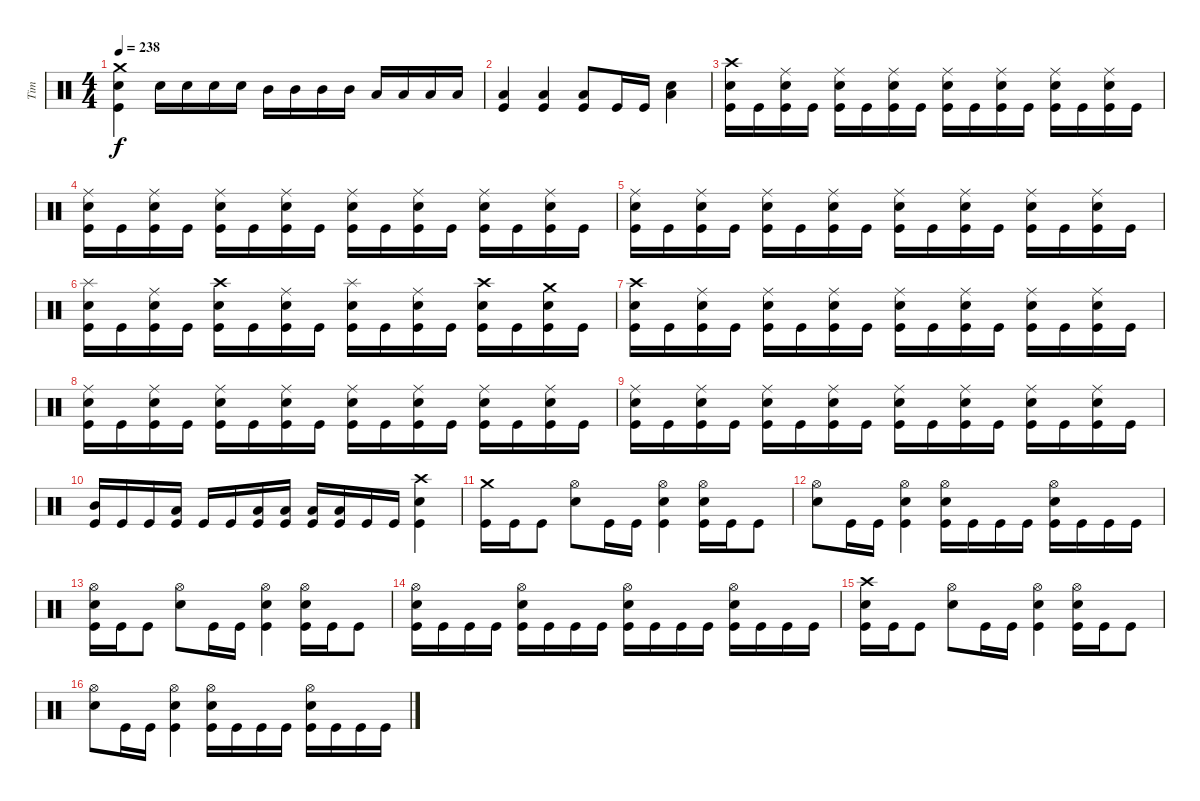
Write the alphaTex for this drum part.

\track ("Tim" "Tim") {instrument percussion}
\staff {score}
\articulation defaults
\ts (4 4)
\tempo 238
\clef neutral
\ks c
("Crash medium (hit)" "Electric Snare (hit)" "Kick (hit)").4{dy f} "Electric Snare (hit)".16 "Electric Snare (hit)".16 "Electric Snare (hit)".16 "Electric Snare (hit)".16 "Mid Tom (hit)".16 "Mid Tom (hit)".16 "Mid Tom (hit)".16 "Mid Tom (hit)".16 "Low Tom (hit)".16 "Low Tom (hit)".16 "Low Tom (hit)".16 "Low Tom (hit)".16 |
("Low Floor Tom (hit)" "Kick (hit)").4 ("Low Floor Tom (hit)" "Kick (hit)").4 ("Low Floor Tom (hit)" "Kick (hit)").8 "Kick (hit)".16 "Kick (hit)".16 ("Electric Snare (hit)" "Low Floor Tom (hit)").4 |
("Crash high (hit)" "Electric Snare (hit)" "Kick (hit)").16 "Kick (hit)".16 ("Ride (middle)" "Electric Snare (hit)" "Kick (hit)").16 "Kick (hit)".16 ("Ride (middle)" "Electric Snare (hit)" "Kick (hit)").16 "Kick (hit)".16 ("Ride (middle)" "Electric Snare (hit)" "Kick (hit)").16 "Kick (hit)".16 ("Ride (middle)" "Electric Snare (hit)" "Kick (hit)").16 "Kick (hit)".16 ("Ride (middle)" "Electric Snare (hit)" "Kick (hit)").16 "Kick (hit)".16 ("Ride (middle)" "Electric Snare (hit)" "Kick (hit)").16 "Kick (hit)".16 ("Ride (middle)" "Electric Snare (hit)" "Kick (hit)").16 "Kick (hit)".16 |
("Ride (middle)" "Electric Snare (hit)" "Kick (hit)").16 "Kick (hit)".16 ("Ride (middle)" "Electric Snare (hit)" "Kick (hit)").16 "Kick (hit)".16 ("Ride (middle)" "Electric Snare (hit)" "Kick (hit)").16 "Kick (hit)".16 ("Ride (middle)" "Electric Snare (hit)" "Kick (hit)").16 "Kick (hit)".16 ("Ride (middle)" "Electric Snare (hit)" "Kick (hit)").16 "Kick (hit)".16 ("Ride (middle)" "Electric Snare (hit)" "Kick (hit)").16 "Kick (hit)".16 ("Ride (middle)" "Electric Snare (hit)" "Kick (hit)").16 "Kick (hit)".16 ("Ride (middle)" "Electric Snare (hit)" "Kick (hit)").16 "Kick (hit)".16 |
("Ride (middle)" "Electric Snare (hit)" "Kick (hit)").16 "Kick (hit)".16 ("Ride (middle)" "Electric Snare (hit)" "Kick (hit)").16 "Kick (hit)".16 ("Ride (middle)" "Electric Snare (hit)" "Kick (hit)").16 "Kick (hit)".16 ("Ride (middle)" "Electric Snare (hit)" "Kick (hit)").16 "Kick (hit)".16 ("Ride (middle)" "Electric Snare (hit)" "Kick (hit)").16 "Kick (hit)".16 ("Ride (middle)" "Electric Snare (hit)" "Kick (hit)").16 "Kick (hit)".16 ("Ride (middle)" "Electric Snare (hit)" "Kick (hit)").16 "Kick (hit)".16 ("Ride (middle)" "Electric Snare (hit)" "Kick (hit)").16 "Kick (hit)".16 |
("Splash (hit)" "Electric Snare (hit)" "Kick (hit)").16 "Kick (hit)".16 ("Ride (middle)" "Electric Snare (hit)" "Kick (hit)").16 "Kick (hit)".16 ("Crash high (hit)" "Electric Snare (hit)" "Kick (hit)").16 "Kick (hit)".16 ("Ride (middle)" "Electric Snare (hit)" "Kick (hit)").16 "Kick (hit)".16 ("Splash (hit)" "Electric Snare (hit)" "Kick (hit)").16 "Kick (hit)".16 ("Ride (middle)" "Electric Snare (hit)" "Kick (hit)").16 "Kick (hit)".16 ("Crash high (hit)" "Electric Snare (hit)" "Kick (hit)").16 "Kick (hit)".16 ("Crash medium (hit)" "Electric Snare (hit)" "Kick (hit)").16 "Kick (hit)".16 |
("Crash high (hit)" "Electric Snare (hit)" "Kick (hit)").16 "Kick (hit)".16 ("Ride (middle)" "Electric Snare (hit)" "Kick (hit)").16 "Kick (hit)".16 ("Ride (middle)" "Electric Snare (hit)" "Kick (hit)").16 "Kick (hit)".16 ("Ride (middle)" "Electric Snare (hit)" "Kick (hit)").16 "Kick (hit)".16 ("Ride (middle)" "Electric Snare (hit)" "Kick (hit)").16 "Kick (hit)".16 ("Ride (middle)" "Electric Snare (hit)" "Kick (hit)").16 "Kick (hit)".16 ("Ride (middle)" "Electric Snare (hit)" "Kick (hit)").16 "Kick (hit)".16 ("Ride (middle)" "Electric Snare (hit)" "Kick (hit)").16 "Kick (hit)".16 |
("Ride (middle)" "Electric Snare (hit)" "Kick (hit)").16 "Kick (hit)".16 ("Ride (middle)" "Electric Snare (hit)" "Kick (hit)").16 "Kick (hit)".16 ("Ride (middle)" "Electric Snare (hit)" "Kick (hit)").16 "Kick (hit)".16 ("Ride (middle)" "Electric Snare (hit)" "Kick (hit)").16 "Kick (hit)".16 ("Ride (middle)" "Electric Snare (hit)" "Kick (hit)").16 "Kick (hit)".16 ("Ride (middle)" "Electric Snare (hit)" "Kick (hit)").16 "Kick (hit)".16 ("Ride (middle)" "Electric Snare (hit)" "Kick (hit)").16 "Kick (hit)".16 ("Ride (middle)" "Electric Snare (hit)" "Kick (hit)").16 "Kick (hit)".16 |
("Ride (middle)" "Electric Snare (hit)" "Kick (hit)").16 "Kick (hit)".16 ("Ride (middle)" "Electric Snare (hit)" "Kick (hit)").16 "Kick (hit)".16 ("Ride (middle)" "Electric Snare (hit)" "Kick (hit)").16 "Kick (hit)".16 ("Ride (middle)" "Electric Snare (hit)" "Kick (hit)").16 "Kick (hit)".16 ("Ride (middle)" "Electric Snare (hit)" "Kick (hit)").16 "Kick (hit)".16 ("Ride (middle)" "Electric Snare (hit)" "Kick (hit)").16 "Kick (hit)".16 ("Ride (middle)" "Electric Snare (hit)" "Kick (hit)").16 "Kick (hit)".16 ("Ride (middle)" "Electric Snare (hit)" "Kick (hit)").16 "Kick (hit)".16 |
("Mid Tom (hit)" "Kick (hit)").16 "Kick (hit)".16 "Kick (hit)".16 ("Low Tom (hit)" "Kick (hit)").16 "Kick (hit)".16 "Kick (hit)".16 ("Low Floor Tom (hit)" "Kick (hit)").16 ("Low Floor Tom (hit)" "Kick (hit)").16 ("Low Floor Tom (hit)" "Kick (hit)").16 ("Low Floor Tom (hit)" "Kick (hit)").16 "Kick (hit)".16 "Kick (hit)".16 ("Crash high (hit)" "Electric Snare (hit)" "Kick (hit)").4 |
("Crash medium (hit)" "Kick (hit)").16 "Kick (hit)".16 "Kick (hit)".8 ("Hi-Hat (open)" "Electric Snare (hit)").8 "Kick (hit)".16 "Kick (hit)".16 ("Hi-Hat (open)" "Electric Snare (hit)" "Kick (hit)").4 ("Hi-Hat (open)" "Electric Snare (hit)" "Kick (hit)").16 "Kick (hit)".16 "Kick (hit)".8 |
("Hi-Hat (open)" "Electric Snare (hit)").8 "Kick (hit)".16 "Kick (hit)".16 ("Hi-Hat (open)" "Electric Snare (hit)" "Kick (hit)").4 ("Hi-Hat (open)" "Electric Snare (hit)" "Kick (hit)").16 "Kick (hit)".16 "Kick (hit)".16 "Kick (hit)".16 ("Hi-Hat (open)" "Electric Snare (hit)" "Kick (hit)").16 "Kick (hit)".16 "Kick (hit)".16 "Kick (hit)".16 |
("Hi-Hat (open)" "Electric Snare (hit)" "Kick (hit)").16 "Kick (hit)".16 "Kick (hit)".8 ("Hi-Hat (open)" "Electric Snare (hit)").8 "Kick (hit)".16 "Kick (hit)".16 ("Hi-Hat (open)" "Electric Snare (hit)" "Kick (hit)").4 ("Hi-Hat (open)" "Electric Snare (hit)" "Kick (hit)").16 "Kick (hit)".16 "Kick (hit)".8 |
("Hi-Hat (open)" "Electric Snare (hit)" "Kick (hit)").16 "Kick (hit)".16 "Kick (hit)".16 "Kick (hit)".16 ("Hi-Hat (open)" "Electric Snare (hit)" "Kick (hit)").16 "Kick (hit)".16 "Kick (hit)".16 "Kick (hit)".16 ("Hi-Hat (open)" "Electric Snare (hit)" "Kick (hit)").16 "Kick (hit)".16 "Kick (hit)".16 "Kick (hit)".16 ("Hi-Hat (open)" "Electric Snare (hit)" "Kick (hit)").16 "Kick (hit)".16 "Kick (hit)".16 "Kick (hit)".16 |
("Crash high (hit)" "Electric Snare (hit)" "Kick (hit)").16 "Kick (hit)".16 "Kick (hit)".8 ("Hi-Hat (open)" "Electric Snare (hit)").8 "Kick (hit)".16 "Kick (hit)".16 ("Hi-Hat (open)" "Electric Snare (hit)" "Kick (hit)").4 ("Hi-Hat (open)" "Electric Snare (hit)" "Kick (hit)").16 "Kick (hit)".16 "Kick (hit)".8 |
("Hi-Hat (open)" "Electric Snare (hit)").8 "Kick (hit)".16 "Kick (hit)".16 ("Hi-Hat (open)" "Electric Snare (hit)" "Kick (hit)").4 ("Hi-Hat (open)" "Electric Snare (hit)" "Kick (hit)").16 "Kick (hit)".16 "Kick (hit)".16 "Kick (hit)".16 ("Hi-Hat (open)" "Electric Snare (hit)" "Kick (hit)").16 "Kick (hit)".16 "Kick (hit)".16 "Kick (hit)".16
